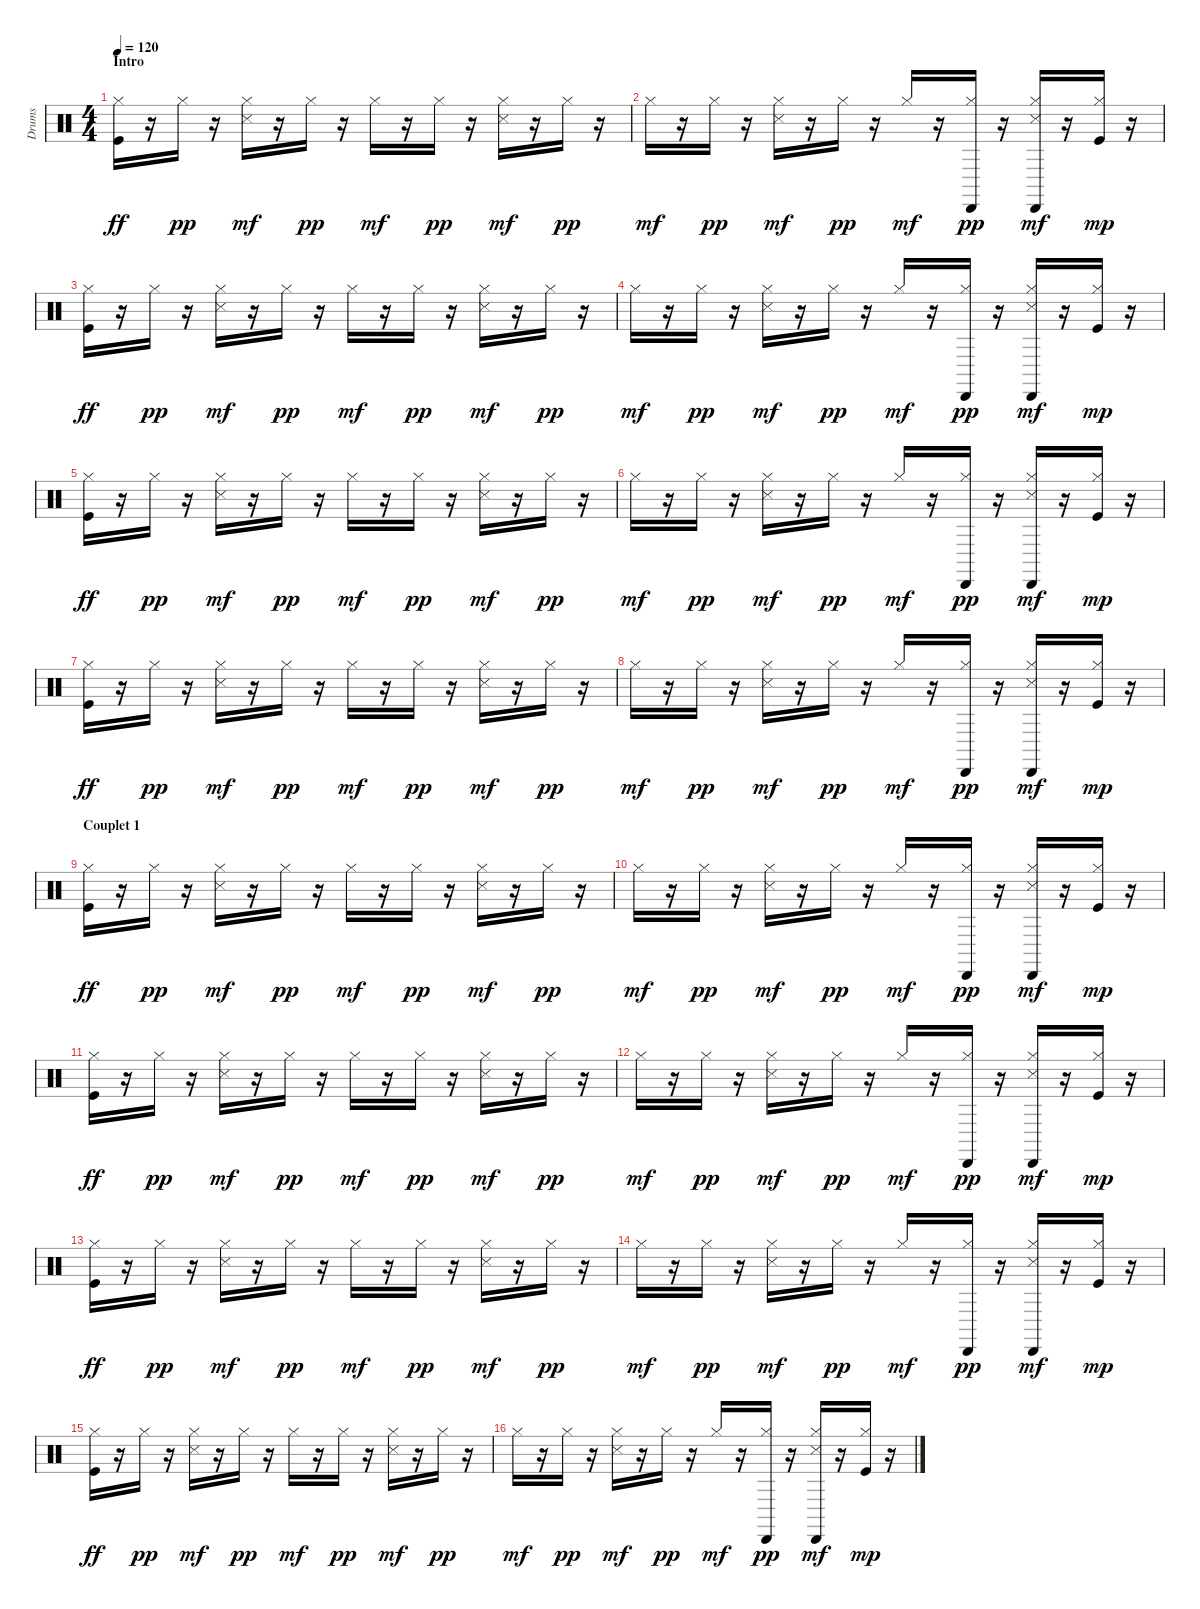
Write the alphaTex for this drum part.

\track ("Drums" "Drums") {instrument percussion}
\staff {score}
\articulation defaults
\ts (4 4)
\section ("" "Intro")
\tempo 120
\clef neutral
\ks c
("Hi-Hat (closed)" "Kick (hit)").16{dy ff} r.16 "Hi-Hat (closed)".16{dy pp} r.16 ("Snare (side stick) 3" "Hi-Hat (closed)").16{dy mf} r.16 "Hi-Hat (closed)".16{dy pp} r.16 "Hi-Hat (closed)".16{dy mf} r.16 "Hi-Hat (closed)".16{dy pp} r.16 ("Snare (side stick) 3" "Hi-Hat (closed)").16{dy mf} r.16 "Hi-Hat (closed)".16{dy pp} r.16 |
"Hi-Hat (closed)".16{dy mf} r.16 "Hi-Hat (closed)".16{dy pp} r.16 ("Snare (side stick) 3" "Hi-Hat (closed)").16{dy mf} r.16 "Hi-Hat (closed)".16{dy pp} r.16 "Hi-Hat (closed)".16{dy mf} r.16 ("Cabasa (hit)" "Hi-Hat (closed)").16{dy pp} r.16 ("Cabasa (hit)" "Snare (side stick) 3" "Hi-Hat (closed)").16{dy mf} r.16 ("Hi-Hat (closed)" "Kick (hit)").16{dy mp} r.16 |
("Hi-Hat (closed)" "Kick (hit)").16{dy ff} r.16 "Hi-Hat (closed)".16{dy pp} r.16 ("Snare (side stick) 3" "Hi-Hat (closed)").16{dy mf} r.16 "Hi-Hat (closed)".16{dy pp} r.16 "Hi-Hat (closed)".16{dy mf} r.16 "Hi-Hat (closed)".16{dy pp} r.16 ("Snare (side stick) 3" "Hi-Hat (closed)").16{dy mf} r.16 "Hi-Hat (closed)".16{dy pp} r.16 |
"Hi-Hat (closed)".16{dy mf} r.16 "Hi-Hat (closed)".16{dy pp} r.16 ("Snare (side stick) 3" "Hi-Hat (closed)").16{dy mf} r.16 "Hi-Hat (closed)".16{dy pp} r.16 "Hi-Hat (closed)".16{dy mf} r.16 ("Cabasa (hit)" "Hi-Hat (closed)").16{dy pp} r.16 ("Cabasa (hit)" "Snare (side stick) 3" "Hi-Hat (closed)").16{dy mf} r.16 ("Hi-Hat (closed)" "Kick (hit)").16{dy mp} r.16 |
("Hi-Hat (closed)" "Kick (hit)").16{dy ff} r.16 "Hi-Hat (closed)".16{dy pp} r.16 ("Snare (side stick) 3" "Hi-Hat (closed)").16{dy mf} r.16 "Hi-Hat (closed)".16{dy pp} r.16 "Hi-Hat (closed)".16{dy mf} r.16 "Hi-Hat (closed)".16{dy pp} r.16 ("Snare (side stick) 3" "Hi-Hat (closed)").16{dy mf} r.16 "Hi-Hat (closed)".16{dy pp} r.16 |
"Hi-Hat (closed)".16{dy mf} r.16 "Hi-Hat (closed)".16{dy pp} r.16 ("Snare (side stick) 3" "Hi-Hat (closed)").16{dy mf} r.16 "Hi-Hat (closed)".16{dy pp} r.16 "Hi-Hat (closed)".16{dy mf} r.16 ("Cabasa (hit)" "Hi-Hat (closed)").16{dy pp} r.16 ("Cabasa (hit)" "Snare (side stick) 3" "Hi-Hat (closed)").16{dy mf} r.16 ("Hi-Hat (closed)" "Kick (hit)").16{dy mp} r.16 |
("Hi-Hat (closed)" "Kick (hit)").16{dy ff} r.16 "Hi-Hat (closed)".16{dy pp} r.16 ("Snare (side stick) 3" "Hi-Hat (closed)").16{dy mf} r.16 "Hi-Hat (closed)".16{dy pp} r.16 "Hi-Hat (closed)".16{dy mf} r.16 "Hi-Hat (closed)".16{dy pp} r.16 ("Snare (side stick) 3" "Hi-Hat (closed)").16{dy mf} r.16 "Hi-Hat (closed)".16{dy pp} r.16 |
"Hi-Hat (closed)".16{dy mf} r.16 "Hi-Hat (closed)".16{dy pp} r.16 ("Snare (side stick) 3" "Hi-Hat (closed)").16{dy mf} r.16 "Hi-Hat (closed)".16{dy pp} r.16 "Hi-Hat (closed)".16{dy mf} r.16 ("Cabasa (hit)" "Hi-Hat (closed)").16{dy pp} r.16 ("Cabasa (hit)" "Snare (side stick) 3" "Hi-Hat (closed)").16{dy mf} r.16 ("Hi-Hat (closed)" "Kick (hit)").16{dy mp} r.16 |
\section ("" "Couplet 1")
("Hi-Hat (closed)" "Kick (hit)").16{dy ff} r.16 "Hi-Hat (closed)".16{dy pp} r.16 ("Snare (side stick) 3" "Hi-Hat (closed)").16{dy mf} r.16 "Hi-Hat (closed)".16{dy pp} r.16 "Hi-Hat (closed)".16{dy mf} r.16 "Hi-Hat (closed)".16{dy pp} r.16 ("Snare (side stick) 3" "Hi-Hat (closed)").16{dy mf} r.16 "Hi-Hat (closed)".16{dy pp} r.16 |
"Hi-Hat (closed)".16{dy mf} r.16 "Hi-Hat (closed)".16{dy pp} r.16 ("Snare (side stick) 3" "Hi-Hat (closed)").16{dy mf} r.16 "Hi-Hat (closed)".16{dy pp} r.16 "Hi-Hat (closed)".16{dy mf} r.16 ("Cabasa (hit)" "Hi-Hat (closed)").16{dy pp} r.16 ("Cabasa (hit)" "Snare (side stick) 3" "Hi-Hat (closed)").16{dy mf} r.16 ("Hi-Hat (closed)" "Kick (hit)").16{dy mp} r.16 |
("Hi-Hat (closed)" "Kick (hit)").16{dy ff} r.16 "Hi-Hat (closed)".16{dy pp} r.16 ("Snare (side stick) 3" "Hi-Hat (closed)").16{dy mf} r.16 "Hi-Hat (closed)".16{dy pp} r.16 "Hi-Hat (closed)".16{dy mf} r.16 "Hi-Hat (closed)".16{dy pp} r.16 ("Snare (side stick) 3" "Hi-Hat (closed)").16{dy mf} r.16 "Hi-Hat (closed)".16{dy pp} r.16 |
"Hi-Hat (closed)".16{dy mf} r.16 "Hi-Hat (closed)".16{dy pp} r.16 ("Snare (side stick) 3" "Hi-Hat (closed)").16{dy mf} r.16 "Hi-Hat (closed)".16{dy pp} r.16 "Hi-Hat (closed)".16{dy mf} r.16 ("Cabasa (hit)" "Hi-Hat (closed)").16{dy pp} r.16 ("Cabasa (hit)" "Snare (side stick) 3" "Hi-Hat (closed)").16{dy mf} r.16 ("Hi-Hat (closed)" "Kick (hit)").16{dy mp} r.16 |
("Hi-Hat (closed)" "Kick (hit)").16{dy ff} r.16 "Hi-Hat (closed)".16{dy pp} r.16 ("Snare (side stick) 3" "Hi-Hat (closed)").16{dy mf} r.16 "Hi-Hat (closed)".16{dy pp} r.16 "Hi-Hat (closed)".16{dy mf} r.16 "Hi-Hat (closed)".16{dy pp} r.16 ("Snare (side stick) 3" "Hi-Hat (closed)").16{dy mf} r.16 "Hi-Hat (closed)".16{dy pp} r.16 |
"Hi-Hat (closed)".16{dy mf} r.16 "Hi-Hat (closed)".16{dy pp} r.16 ("Snare (side stick) 3" "Hi-Hat (closed)").16{dy mf} r.16 "Hi-Hat (closed)".16{dy pp} r.16 "Hi-Hat (closed)".16{dy mf} r.16 ("Cabasa (hit)" "Hi-Hat (closed)").16{dy pp} r.16 ("Cabasa (hit)" "Snare (side stick) 3" "Hi-Hat (closed)").16{dy mf} r.16 ("Hi-Hat (closed)" "Kick (hit)").16{dy mp} r.16 |
("Hi-Hat (closed)" "Kick (hit)").16{dy ff} r.16 "Hi-Hat (closed)".16{dy pp} r.16 ("Snare (side stick) 3" "Hi-Hat (closed)").16{dy mf} r.16 "Hi-Hat (closed)".16{dy pp} r.16 "Hi-Hat (closed)".16{dy mf} r.16 "Hi-Hat (closed)".16{dy pp} r.16 ("Snare (side stick) 3" "Hi-Hat (closed)").16{dy mf} r.16 "Hi-Hat (closed)".16{dy pp} r.16 |
"Hi-Hat (closed)".16{dy mf} r.16 "Hi-Hat (closed)".16{dy pp} r.16 ("Snare (side stick) 3" "Hi-Hat (closed)").16{dy mf} r.16 "Hi-Hat (closed)".16{dy pp} r.16 "Hi-Hat (closed)".16{dy mf} r.16 ("Cabasa (hit)" "Hi-Hat (closed)").16{dy pp} r.16 ("Cabasa (hit)" "Snare (side stick) 3" "Hi-Hat (closed)").16{dy mf} r.16 ("Hi-Hat (closed)" "Kick (hit)").16{dy mp} r.16
